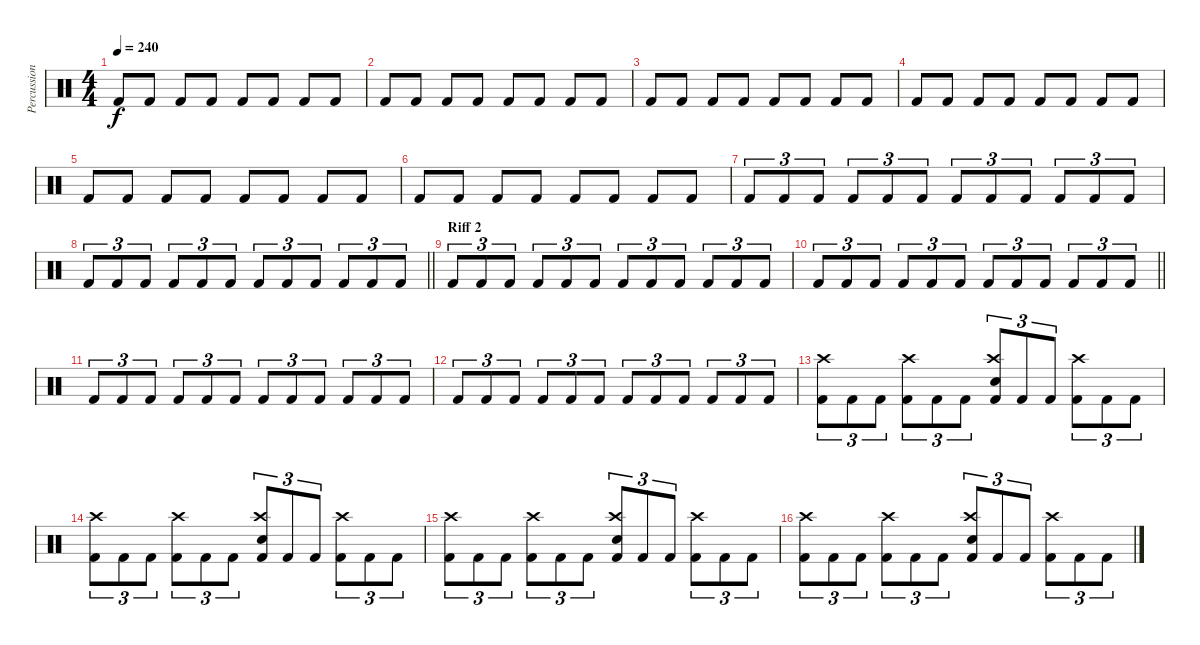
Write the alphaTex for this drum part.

\track ("Percussion" "Percussion") {instrument percussion}
\staff {score}
\articulation defaults
\ts (4 4)
\tempo 240
\clef neutral
\ks c "Kick (hit) 2".8{dy f} "Kick (hit) 2".8 "Kick (hit) 2".8 "Kick (hit) 2".8 "Kick (hit) 2".8 "Kick (hit) 2".8 "Kick (hit) 2".8 "Kick (hit) 2".8
|
"Kick (hit) 2".8 "Kick (hit) 2".8 "Kick (hit) 2".8 "Kick (hit) 2".8 "Kick (hit) 2".8 "Kick (hit) 2".8 "Kick (hit) 2".8 "Kick (hit) 2".8 |
"Kick (hit) 2".8 "Kick (hit) 2".8 "Kick (hit) 2".8 "Kick (hit) 2".8 "Kick (hit) 2".8 "Kick (hit) 2".8 "Kick (hit) 2".8 "Kick (hit) 2".8 |
"Kick (hit) 2".8 "Kick (hit) 2".8 "Kick (hit) 2".8 "Kick (hit) 2".8 "Kick (hit) 2".8 "Kick (hit) 2".8 "Kick (hit) 2".8 "Kick (hit) 2".8 |
"Kick (hit) 2".8 "Kick (hit) 2".8 "Kick (hit) 2".8 "Kick (hit) 2".8 "Kick (hit) 2".8 "Kick (hit) 2".8 "Kick (hit) 2".8 "Kick (hit) 2".8 |
"Kick (hit) 2".8 "Kick (hit) 2".8 "Kick (hit) 2".8 "Kick (hit) 2".8 "Kick (hit) 2".8 "Kick (hit) 2".8 "Kick (hit) 2".8 "Kick (hit) 2".8 |
"Kick (hit) 2".8{tu (3 2)} "Kick (hit) 2".8{tu (3 2)} "Kick (hit) 2".8{tu (3 2)} "Kick (hit) 2".8{tu (3 2)} "Kick (hit) 2".8{tu (3 2)} "Kick (hit) 2".8{tu (3 2)} "Kick (hit) 2".8{tu (3 2)} "Kick (hit) 2".8{tu (3 2)} "Kick (hit) 2".8{tu (3 2)} "Kick (hit) 2".8{tu (3 2)} "Kick (hit) 2".8{tu (3 2)} "Kick (hit) 2".8{tu (3 2)} |
\barLineRight lightlight "Kick (hit) 2".8{tu (3 2)} "Kick (hit) 2".8{tu (3 2)} "Kick (hit) 2".8{tu (3 2)} "Kick (hit) 2".8{tu (3 2)} "Kick (hit) 2".8{tu (3 2)} "Kick (hit) 2".8{tu (3 2)} "Kick (hit) 2".8{tu (3 2)} "Kick (hit) 2".8{tu (3 2)} "Kick (hit) 2".8{tu (3 2)} "Kick (hit) 2".8{tu (3 2)} "Kick (hit) 2".8{tu (3 2)} "Kick (hit) 2".8{tu (3 2)}
|
\section ("" "Riff 2")
"Kick (hit) 2".8{tu (3 2)} "Kick (hit) 2".8{tu (3 2)} "Kick (hit) 2".8{tu (3 2)} "Kick (hit) 2".8{tu (3 2)} "Kick (hit) 2".8{tu (3 2)} "Kick (hit) 2".8{tu (3 2)} "Kick (hit) 2".8{tu (3 2)} "Kick (hit) 2".8{tu (3 2)} "Kick (hit) 2".8{tu (3 2)} "Kick (hit) 2".8{tu (3 2)} "Kick (hit) 2".8{tu (3 2)} "Kick (hit) 2".8{tu (3 2)} |
\barLineRight lightlight "Kick (hit) 2".8{tu (3 2)} "Kick (hit) 2".8{tu (3 2)} "Kick (hit) 2".8{tu (3 2)} "Kick (hit) 2".8{tu (3 2)} "Kick (hit) 2".8{tu (3 2)} "Kick (hit) 2".8{tu (3 2)} "Kick (hit) 2".8{tu (3 2)} "Kick (hit) 2".8{tu (3 2)} "Kick (hit) 2".8{tu (3 2)} "Kick (hit) 2".8{tu (3 2)} "Kick (hit) 2".8{tu (3 2)} "Kick (hit) 2".8{tu (3 2)}
|
"Kick (hit) 2".8{tu (3 2)} "Kick (hit) 2".8{tu (3 2)} "Kick (hit) 2".8{tu (3 2)} "Kick (hit) 2".8{tu (3 2)} "Kick (hit) 2".8{tu (3 2)} "Kick (hit) 2".8{tu (3 2)} "Kick (hit) 2".8{tu (3 2)} "Kick (hit) 2".8{tu (3 2)} "Kick (hit) 2".8{tu (3 2)} "Kick (hit) 2".8{tu (3 2)} "Kick (hit) 2".8{tu (3 2)} "Kick (hit) 2".8{tu (3 2)} |
"Kick (hit) 2".8{tu (3 2)} "Kick (hit) 2".8{tu (3 2)} "Kick (hit) 2".8{tu (3 2)} "Kick (hit) 2".8{tu (3 2)} "Kick (hit) 2".8{tu (3 2)} "Kick (hit) 2".8{tu (3 2)} "Kick (hit) 2".8{tu (3 2)} "Kick (hit) 2".8{tu (3 2)} "Kick (hit) 2".8{tu (3 2)} "Kick (hit) 2".8{tu (3 2)} "Kick (hit) 2".8{tu (3 2)} "Kick (hit) 2".8{tu (3 2)} |
("Kick (hit) 2" "Crash high (hit)").8{tu (3 2)} "Kick (hit) 2".8{tu (3 2)} "Kick (hit) 2".8{tu (3 2)} ("Kick (hit) 2" "Crash high (hit)").8{tu (3 2)} "Kick (hit) 2".8{tu (3 2)} "Kick (hit) 2".8{tu (3 2)} ("Kick (hit) 2" "Crash high (hit)" "Electric Snare (hit)").8{tu (3 2)} "Kick (hit) 2".8{tu (3 2)} "Kick (hit) 2".8{tu (3 2)} ("Kick (hit) 2" "Crash high (hit)").8{tu (3 2)} "Kick (hit) 2".8{tu (3 2)} "Kick (hit) 2".8{tu (3 2)} |
("Kick (hit) 2" "Crash high (hit)").8{tu (3 2)} "Kick (hit) 2".8{tu (3 2)} "Kick (hit) 2".8{tu (3 2)} ("Kick (hit) 2" "Crash high (hit)").8{tu (3 2)} "Kick (hit) 2".8{tu (3 2)} "Kick (hit) 2".8{tu (3 2)} ("Kick (hit) 2" "Crash high (hit)" "Electric Snare (hit)").8{tu (3 2)} "Kick (hit) 2".8{tu (3 2)} "Kick (hit) 2".8{tu (3 2)} ("Kick (hit) 2" "Crash high (hit)").8{tu (3 2)} "Kick (hit) 2".8{tu (3 2)} "Kick (hit) 2".8{tu (3 2)} |
("Kick (hit) 2" "Crash high (hit)").8{tu (3 2)} "Kick (hit) 2".8{tu (3 2)} "Kick (hit) 2".8{tu (3 2)} ("Kick (hit) 2" "Crash high (hit)").8{tu (3 2)} "Kick (hit) 2".8{tu (3 2)} "Kick (hit) 2".8{tu (3 2)} ("Kick (hit) 2" "Crash high (hit)" "Electric Snare (hit)").8{tu (3 2)} "Kick (hit) 2".8{tu (3 2)} "Kick (hit) 2".8{tu (3 2)} ("Kick (hit) 2" "Crash high (hit)").8{tu (3 2)} "Kick (hit) 2".8{tu (3 2)} "Kick (hit) 2".8{tu (3 2)} |
("Kick (hit) 2" "Crash high (hit)").8{tu (3 2)} "Kick (hit) 2".8{tu (3 2)} "Kick (hit) 2".8{tu (3 2)} ("Kick (hit) 2" "Crash high (hit)").8{tu (3 2)} "Kick (hit) 2".8{tu (3 2)} "Kick (hit) 2".8{tu (3 2)} ("Kick (hit) 2" "Crash high (hit)" "Electric Snare (hit)").8{tu (3 2)} "Kick (hit) 2".8{tu (3 2)} "Kick (hit) 2".8{tu (3 2)} ("Kick (hit) 2" "Crash high (hit)").8{tu (3 2)} "Kick (hit) 2".8{tu (3 2)} "Kick (hit) 2".8{tu (3 2)}
